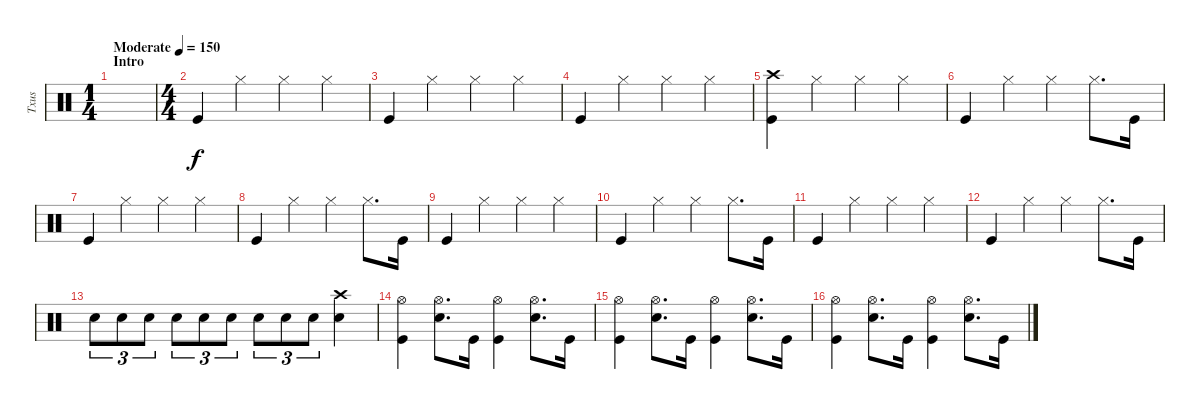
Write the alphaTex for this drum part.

\track ("Txus" "Txus") {instrument percussion}
\staff {score}
\articulation defaults
\ts (1 4)
\section ("" "Intro")
\tempo (150 "Moderate")
\clef neutral
\ks c
|
\ts (4 4)
"Kick (hit)".4 "Hi-Hat (closed)".4 "Hi-Hat (closed)".4 "Hi-Hat (closed)".4 |
"Kick (hit)".4 "Hi-Hat (closed)".4 "Hi-Hat (closed)".4 "Hi-Hat (closed)".4 |
"Kick (hit)".4 "Hi-Hat (closed)".4 "Hi-Hat (closed)".4 "Hi-Hat (closed)".4 |
("Kick (hit)" "Crash high (hit)").4 "Hi-Hat (closed)".4 "Hi-Hat (closed)".4 "Hi-Hat (closed)".4 |
"Kick (hit)".4 "Hi-Hat (closed)".4 "Hi-Hat (closed)".4 "Hi-Hat (closed)".8{d} "Kick (hit)".16 |
"Kick (hit)".4 "Hi-Hat (closed)".4 "Hi-Hat (closed)".4 "Hi-Hat (closed)".4 |
"Kick (hit)".4 "Hi-Hat (closed)".4 "Hi-Hat (closed)".4 "Hi-Hat (closed)".8{d} "Kick (hit)".16 |
"Kick (hit)".4 "Hi-Hat (closed)".4 "Hi-Hat (closed)".4 "Hi-Hat (closed)".4 |
"Kick (hit)".4 "Hi-Hat (closed)".4 "Hi-Hat (closed)".4 "Hi-Hat (closed)".8{d} "Kick (hit)".16 |
"Kick (hit)".4 "Hi-Hat (closed)".4 "Hi-Hat (closed)".4 "Hi-Hat (closed)".4 |
"Kick (hit)".4 "Hi-Hat (closed)".4 "Hi-Hat (closed)".4 "Hi-Hat (closed)".8{d} "Kick (hit)".16 |
"Snare (hit) 2".8{tu (3 2)} "Snare (hit) 2".8{tu (3 2)} "Snare (hit) 2".8{tu (3 2)} "Snare (hit) 2".8{tu (3 2)} "Snare (hit) 2".8{tu (3 2)} "Snare (hit) 2".8{tu (3 2)} "Snare (hit) 2".8{tu (3 2)} "Snare (hit) 2".8{tu (3 2)} "Snare (hit) 2".8{tu (3 2)} ("Snare (hit) 2" "Crash high (hit)").4 |
("Kick (hit)" "Hi-Hat (open)").4 ("Snare (hit) 2" "Hi-Hat (open)").8{d} "Kick (hit)".16 ("Kick (hit)" "Hi-Hat (open)").4 ("Snare (hit) 2" "Hi-Hat (open)").8{d} "Kick (hit)".16 |
("Kick (hit)" "Hi-Hat (open)").4 ("Snare (hit) 2" "Hi-Hat (open)").8{d} "Kick (hit)".16 ("Kick (hit)" "Hi-Hat (open)").4 ("Snare (hit) 2" "Hi-Hat (open)").8{d} "Kick (hit)".16 |
("Kick (hit)" "Hi-Hat (open)").4 ("Snare (hit) 2" "Hi-Hat (open)").8{d} "Kick (hit)".16 ("Kick (hit)" "Hi-Hat (open)").4 ("Snare (hit) 2" "Hi-Hat (open)").8{d} "Kick (hit)".16
